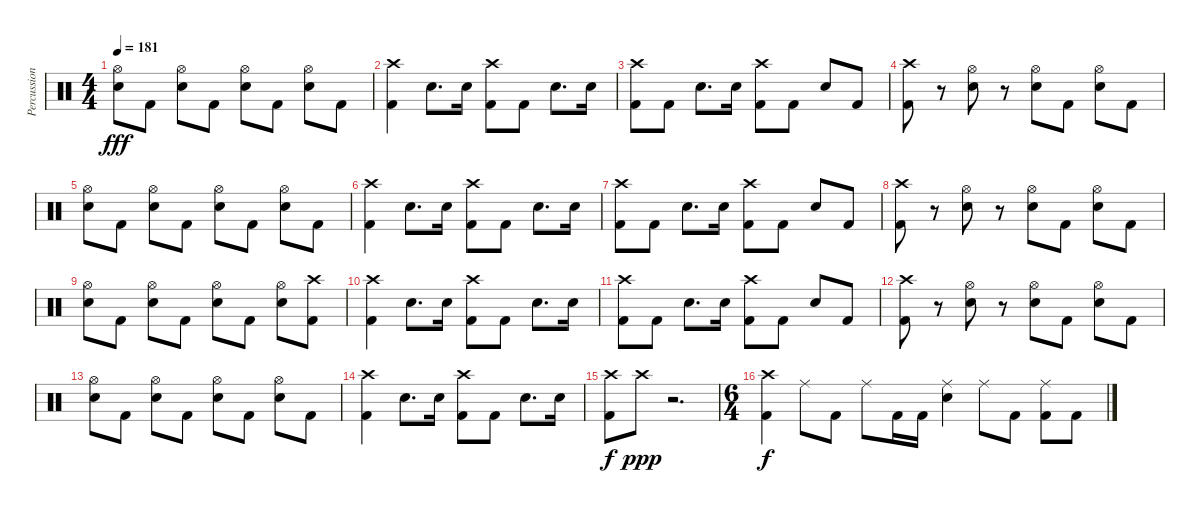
\track ("Percussion" "Percussion") {instrument percussion}
\staff {score}
\articulation defaults
\ts (4 4)
\tempo 181
\clef neutral
\ks c
("Electric Snare (hit)" "Hi-Hat (open)").8{dy fff} "Kick (hit) 2".8 ("Electric Snare (hit)" "Hi-Hat (open)").8 "Kick (hit) 2".8 ("Electric Snare (hit)" "Hi-Hat (open)").8 "Kick (hit) 2".8 ("Electric Snare (hit)" "Hi-Hat (open)").8 "Kick (hit) 2".8 |
("Kick (hit) 2" "Crash high (hit)").4 "Electric Snare (hit)".8{d} "Electric Snare (hit)".16 ("Kick (hit) 2" "Crash high (hit)").8 "Kick (hit) 2".8 "Electric Snare (hit)".8{d} "Electric Snare (hit)".16 |
("Kick (hit) 2" "Crash high (hit)").8 "Kick (hit) 2".8 "Electric Snare (hit)".8{d} "Electric Snare (hit)".16 ("Kick (hit) 2" "Crash high (hit)").8 "Kick (hit) 2".8 "Electric Snare (hit)".8 "Kick (hit) 2".8 |
("Crash high (hit)" "Kick (hit) 2").8 r.8 ("Electric Snare (hit)" "Hi-Hat (open)").8 r.8 ("Electric Snare (hit)" "Hi-Hat (open)").8 "Kick (hit) 2".8 ("Electric Snare (hit)" "Hi-Hat (open)").8 "Kick (hit) 2".8 |
("Electric Snare (hit)" "Hi-Hat (open)").8 "Kick (hit) 2".8 ("Electric Snare (hit)" "Hi-Hat (open)").8 "Kick (hit) 2".8 ("Electric Snare (hit)" "Hi-Hat (open)").8 "Kick (hit) 2".8 ("Electric Snare (hit)" "Hi-Hat (open)").8 "Kick (hit) 2".8 |
("Kick (hit) 2" "Crash high (hit)").4 "Electric Snare (hit)".8{d} "Electric Snare (hit)".16 ("Kick (hit) 2" "Crash high (hit)").8 "Kick (hit) 2".8 "Electric Snare (hit)".8{d} "Electric Snare (hit)".16 |
("Kick (hit) 2" "Crash high (hit)").8 "Kick (hit) 2".8 "Electric Snare (hit)".8{d} "Electric Snare (hit)".16 ("Kick (hit) 2" "Crash high (hit)").8 "Kick (hit) 2".8 "Electric Snare (hit)".8 "Kick (hit) 2".8 |
("Crash high (hit)" "Kick (hit) 2").8 r.8 ("Electric Snare (hit)" "Hi-Hat (open)").8 r.8 ("Electric Snare (hit)" "Hi-Hat (open)").8 "Kick (hit) 2".8 ("Electric Snare (hit)" "Hi-Hat (open)").8 "Kick (hit) 2".8 |
("Electric Snare (hit)" "Hi-Hat (open)").8 "Kick (hit) 2".8 ("Electric Snare (hit)" "Hi-Hat (open)").8 "Kick (hit) 2".8 ("Electric Snare (hit)" "Hi-Hat (open)").8 "Kick (hit) 2".8 ("Electric Snare (hit)" "Hi-Hat (open)").8 ("Kick (hit) 2" "Crash high (hit)").8 |
("Kick (hit) 2" "Crash high (hit)").4 "Electric Snare (hit)".8{d} "Electric Snare (hit)".16 ("Kick (hit) 2" "Crash high (hit)").8 "Kick (hit) 2".8 "Electric Snare (hit)".8{d} "Electric Snare (hit)".16 |
("Kick (hit) 2" "Crash high (hit)").8 "Kick (hit) 2".8 "Electric Snare (hit)".8{d} "Electric Snare (hit)".16 ("Kick (hit) 2" "Crash high (hit)").8 "Kick (hit) 2".8 "Electric Snare (hit)".8 "Kick (hit) 2".8 |
("Crash high (hit)" "Kick (hit) 2").8 r.8 ("Electric Snare (hit)" "Hi-Hat (open)").8 r.8 ("Electric Snare (hit)" "Hi-Hat (open)").8 "Kick (hit) 2".8 ("Electric Snare (hit)" "Hi-Hat (open)").8 "Kick (hit) 2".8 |
("Electric Snare (hit)" "Hi-Hat (open)").8 "Kick (hit) 2".8 ("Electric Snare (hit)" "Hi-Hat (open)").8 "Kick (hit) 2".8 ("Electric Snare (hit)" "Hi-Hat (open)").8 "Kick (hit) 2".8 ("Electric Snare (hit)" "Hi-Hat (open)").8 "Kick (hit) 2".8 |
("Kick (hit) 2" "Crash high (hit)").4 "Electric Snare (hit)".8{d} "Electric Snare (hit)".16 ("Kick (hit) 2" "Crash high (hit)").8 "Kick (hit) 2".8 "Electric Snare (hit)".8{d} "Electric Snare (hit)".16 |
("Crash high (hit)" "Kick (hit) 2").8{dy f} "Crash high (hit)".8{dy ppp} r.2{d} |
\ts (6 4)
("Kick (hit) 2" "Crash high (hit)").4{dy f} "Ride (middle)".8 "Kick (hit) 2".8 "Ride (middle)".8 "Kick (hit) 2".16 "Kick (hit) 2".16 ("Electric Snare (hit)" "Ride (middle)").4 "Ride (middle)".8 "Kick (hit) 2".8 ("Kick (hit) 2" "Ride (middle)").8 "Kick (hit) 2".8
